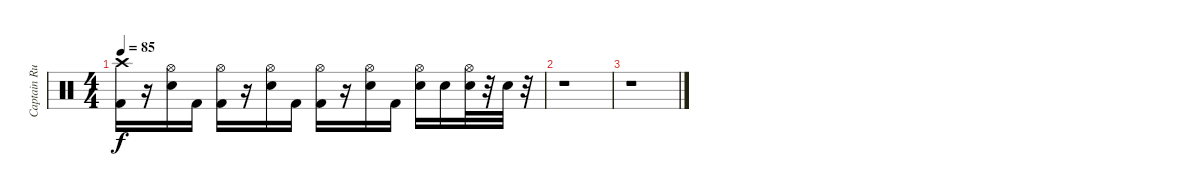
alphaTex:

\track ("Captain Rudabar/Rob Dog" "Captain Ru") {instrument percussion}
\staff {score}
\articulation defaults
\ts (4 4)
\tempo 85
\clef neutral
\ks c
("Crash high (hit)" "Kick (hit) 2").16{dy f} r.16 ("Hi-Hat (open)" "Electric Snare (hit)").16 "Kick (hit) 2".16 ("Hi-Hat (open)" "Kick (hit) 2").16 r.16 ("Hi-Hat (open)" "Electric Snare (hit)").16 "Kick (hit) 2".16 ("Hi-Hat (open)" "Kick (hit) 2").16 r.16 ("Hi-Hat (open)" "Electric Snare (hit)").16 "Kick (hit) 2".16 ("Hi-Hat (open)" "Electric Snare (hit)").16 "Electric Snare (hit)".16 ("Hi-Hat (open)" "Electric Snare (hit)").32 r.32 "Electric Snare (hit)".32 r.32 |
r.1 |
r.1
